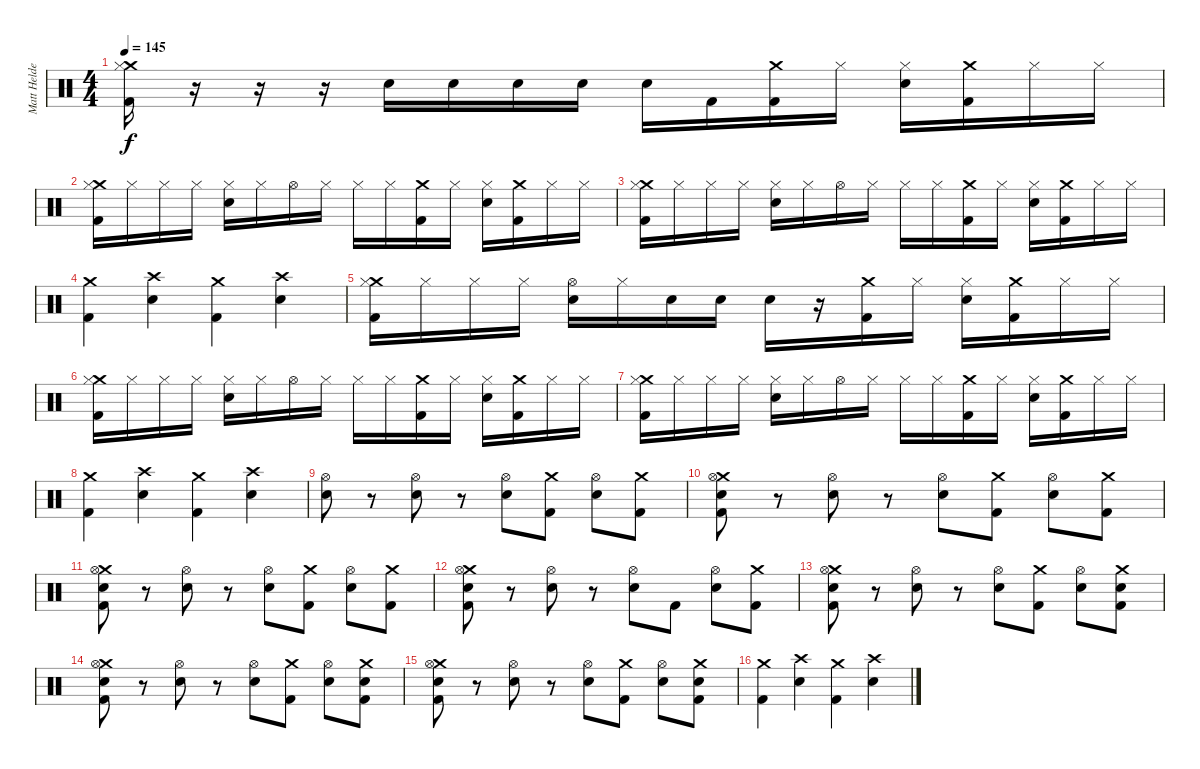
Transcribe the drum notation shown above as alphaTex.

\track ("Matt Helders" "Matt Helde") {instrument percussion}
\staff {score}
\articulation defaults
\ts (4 4)
\tempo 145
\clef neutral
\ks c
("Crash medium (hit)" "Hi-Hat (closed)" "Kick (hit) 2").16{dy f} r.16 r.16 r.16 "Snare (hit) 2".16 "Snare (hit) 2".16 "Snare (hit) 2".16 "Snare (hit) 2".16 "Snare (hit) 2".16 "Kick (hit) 2".16 ("Crash medium (hit)" "Kick (hit) 2").16 "Hi-Hat (closed)".16 ("Hi-Hat (closed)" "Snare (hit) 2").16 ("Crash medium (hit)" "Kick (hit) 2").16 "Hi-Hat (closed)".16 "Hi-Hat (closed)".16 |
("Crash medium (hit)" "Hi-Hat (closed)" "Kick (hit) 2").16 "Hi-Hat (closed)".16 "Hi-Hat (closed)".16 "Hi-Hat (closed)".16 ("Hi-Hat (closed)" "Snare (hit) 2").16 "Hi-Hat (closed)".16 "Hi-Hat (open)".16 "Hi-Hat (closed)".16 "Hi-Hat (closed)".16 "Hi-Hat (closed)".16 ("Crash medium (hit)" "Kick (hit) 2").16 "Hi-Hat (closed)".16 ("Hi-Hat (closed)" "Snare (hit) 2").16 ("Crash medium (hit)" "Kick (hit) 2").16 "Hi-Hat (closed)".16 "Hi-Hat (closed)".16 |
("Crash medium (hit)" "Hi-Hat (closed)" "Kick (hit) 2").16 "Hi-Hat (closed)".16 "Hi-Hat (closed)".16 "Hi-Hat (closed)".16 ("Hi-Hat (closed)" "Snare (hit) 2").16 "Hi-Hat (closed)".16 "Hi-Hat (open)".16 "Hi-Hat (closed)".16 "Hi-Hat (closed)".16 "Hi-Hat (closed)".16 ("Crash medium (hit)" "Kick (hit) 2").16 "Hi-Hat (closed)".16 ("Hi-Hat (closed)" "Snare (hit) 2").16 ("Crash medium (hit)" "Kick (hit) 2").16 "Hi-Hat (closed)".16 "Hi-Hat (closed)".16 |
("Crash medium (hit)" "Kick (hit) 2").4 ("Crash high (hit)" "Snare (hit) 2").4 ("Crash medium (hit)" "Kick (hit) 2").4 ("Crash high (hit)" "Snare (hit) 2").4 |
("Crash medium (hit)" "Hi-Hat (closed)" "Kick (hit) 2").16 "Hi-Hat (closed)".16 "Hi-Hat (closed)".16 "Hi-Hat (closed)".16 ("Hi-Hat (open)" "Snare (hit) 2").16 "Hi-Hat (closed)".16 "Snare (hit) 2".16 "Snare (hit) 2".16 "Snare (hit) 2".16 r.16 ("Crash medium (hit)" "Kick (hit) 2").16 "Hi-Hat (closed)".16 ("Hi-Hat (closed)" "Snare (hit) 2").16 ("Crash medium (hit)" "Kick (hit) 2").16 "Hi-Hat (closed)".16 "Hi-Hat (closed)".16 |
("Crash medium (hit)" "Hi-Hat (closed)" "Kick (hit) 2").16 "Hi-Hat (closed)".16 "Hi-Hat (closed)".16 "Hi-Hat (closed)".16 ("Hi-Hat (closed)" "Snare (hit) 2").16 "Hi-Hat (closed)".16 "Hi-Hat (open)".16 "Hi-Hat (closed)".16 "Hi-Hat (closed)".16 "Hi-Hat (closed)".16 ("Crash medium (hit)" "Kick (hit) 2").16 "Hi-Hat (closed)".16 ("Hi-Hat (closed)" "Snare (hit) 2").16 ("Crash medium (hit)" "Kick (hit) 2").16 "Hi-Hat (closed)".16 "Hi-Hat (closed)".16 |
("Crash medium (hit)" "Hi-Hat (closed)" "Kick (hit) 2").16 "Hi-Hat (closed)".16 "Hi-Hat (closed)".16 "Hi-Hat (closed)".16 ("Hi-Hat (closed)" "Snare (hit) 2").16 "Hi-Hat (closed)".16 "Hi-Hat (open)".16 "Hi-Hat (closed)".16 "Hi-Hat (closed)".16 "Hi-Hat (closed)".16 ("Crash medium (hit)" "Kick (hit) 2").16 "Hi-Hat (closed)".16 ("Hi-Hat (closed)" "Snare (hit) 2").16 ("Crash medium (hit)" "Kick (hit) 2").16 "Hi-Hat (closed)".16 "Hi-Hat (closed)".16 |
("Crash medium (hit)" "Kick (hit) 2").4 ("Crash high (hit)" "Snare (hit) 2").4 ("Crash medium (hit)" "Kick (hit) 2").4 ("Crash high (hit)" "Snare (hit) 2").4 |
("Hi-Hat (open)" "Snare (hit) 2").8 r.8 ("Hi-Hat (open)" "Snare (hit) 2").8 r.8 ("Hi-Hat (open)" "Snare (hit) 2").8 ("Crash medium (hit)" "Kick (hit) 2").8 ("Hi-Hat (open)" "Snare (hit) 2").8 ("Crash medium (hit)" "Kick (hit) 2").8 |
("Crash medium (hit)" "Hi-Hat (open)" "Kick (hit) 2" "Snare (hit) 2").8 r.8 ("Hi-Hat (open)" "Snare (hit) 2").8 r.8 ("Hi-Hat (open)" "Snare (hit) 2").8 ("Crash medium (hit)" "Kick (hit) 2").8 ("Hi-Hat (open)" "Snare (hit) 2").8 ("Crash medium (hit)" "Kick (hit) 2").8 |
("Crash medium (hit)" "Hi-Hat (open)" "Kick (hit) 2" "Snare (hit) 2").8 r.8 ("Hi-Hat (open)" "Snare (hit) 2").8 r.8 ("Hi-Hat (open)" "Snare (hit) 2").8 ("Crash medium (hit)" "Kick (hit) 2").8 ("Hi-Hat (open)" "Snare (hit) 2").8 ("Crash medium (hit)" "Kick (hit) 2").8 |
("Crash medium (hit)" "Hi-Hat (open)" "Kick (hit) 2" "Snare (hit) 2").8 r.8 ("Hi-Hat (open)" "Snare (hit) 2").8 r.8 ("Hi-Hat (open)" "Snare (hit) 2").8 "Kick (hit) 2".8 ("Hi-Hat (open)" "Snare (hit) 2").8 ("Crash medium (hit)" "Kick (hit) 2").8 |
("Crash medium (hit)" "Hi-Hat (open)" "Kick (hit) 2" "Snare (hit) 2").8 r.8 ("Hi-Hat (open)" "Snare (hit) 2").8 r.8 ("Hi-Hat (open)" "Snare (hit) 2").8 ("Crash medium (hit)" "Kick (hit) 2").8 ("Hi-Hat (open)" "Snare (hit) 2").8 ("Crash medium (hit)" "Snare (hit)" "Kick (hit) 2").8 |
("Crash medium (hit)" "Hi-Hat (open)" "Kick (hit) 2" "Snare (hit) 2").8 r.8 ("Hi-Hat (open)" "Snare (hit) 2").8 r.8 ("Hi-Hat (open)" "Snare (hit) 2").8 ("Crash medium (hit)" "Kick (hit) 2").8 ("Hi-Hat (open)" "Snare (hit) 2").8 ("Crash medium (hit)" "Snare (hit)" "Kick (hit) 2").8 |
("Crash medium (hit)" "Hi-Hat (open)" "Kick (hit) 2" "Snare (hit) 2").8 r.8 ("Hi-Hat (open)" "Snare (hit) 2").8 r.8 ("Hi-Hat (open)" "Snare (hit) 2").8 ("Crash medium (hit)" "Kick (hit) 2").8 ("Hi-Hat (open)" "Snare (hit) 2").8 ("Crash medium (hit)" "Snare (hit)" "Kick (hit) 2").8 |
("Crash medium (hit)" "Kick (hit) 2").4 ("Crash high (hit)" "Snare (hit) 2").4 ("Crash medium (hit)" "Kick (hit) 2").4 ("Crash high (hit)" "Snare (hit) 2").4
